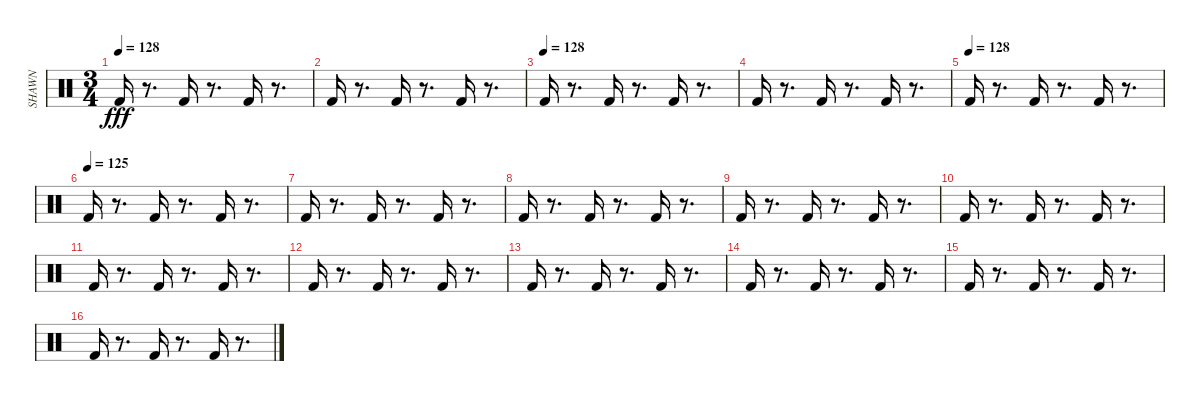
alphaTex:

\track ("SHAWN" "SHAWN") {instrument percussion}
\staff {score}
\articulation defaults
\ts (3 4)
\tempo 128
\clef neutral
\ks c "Kick (hit) 2".16{dy fff}
r.8{d} "Kick (hit) 2".16 r.8{d} "Kick (hit) 2".16 r.8{d} |
"Kick (hit) 2".16 r.8{d} "Kick (hit) 2".16 r.8{d} "Kick (hit) 2".16 r.8{d} |
\tempo (128)
"Kick (hit) 2".16 r.8{d} "Kick (hit) 2".16 r.8{d} "Kick (hit) 2".16 r.8{d} |
"Kick (hit) 2".16 r.8{d} "Kick (hit) 2".16 r.8{d} "Kick (hit) 2".16 r.8{d} |
\tempo (128)
"Kick (hit) 2".16 r.8{d} "Kick (hit) 2".16 r.8{d} "Kick (hit) 2".16 r.8{d} |
\tempo (125)
"Kick (hit) 2".16 r.8{d} "Kick (hit) 2".16 r.8{d} "Kick (hit) 2".16 r.8{d} |
"Kick (hit) 2".16 r.8{d} "Kick (hit) 2".16 r.8{d} "Kick (hit) 2".16 r.8{d} |
"Kick (hit) 2".16 r.8{d} "Kick (hit) 2".16 r.8{d} "Kick (hit) 2".16 r.8{d} |
"Kick (hit) 2".16 r.8{d} "Kick (hit) 2".16 r.8{d} "Kick (hit) 2".16 r.8{d} |
"Kick (hit) 2".16 r.8{d} "Kick (hit) 2".16 r.8{d} "Kick (hit) 2".16 r.8{d} |
"Kick (hit) 2".16 r.8{d} "Kick (hit) 2".16 r.8{d} "Kick (hit) 2".16 r.8{d} |
"Kick (hit) 2".16 r.8{d} "Kick (hit) 2".16 r.8{d} "Kick (hit) 2".16 r.8{d} |
"Kick (hit) 2".16 r.8{d} "Kick (hit) 2".16 r.8{d} "Kick (hit) 2".16 r.8{d} |
"Kick (hit) 2".16 r.8{d} "Kick (hit) 2".16 r.8{d} "Kick (hit) 2".16 r.8{d} |
"Kick (hit) 2".16 r.8{d} "Kick (hit) 2".16 r.8{d} "Kick (hit) 2".16 r.8{d} |
"Kick (hit) 2".16 r.8{d} "Kick (hit) 2".16 r.8{d} "Kick (hit) 2".16 r.8{d}
